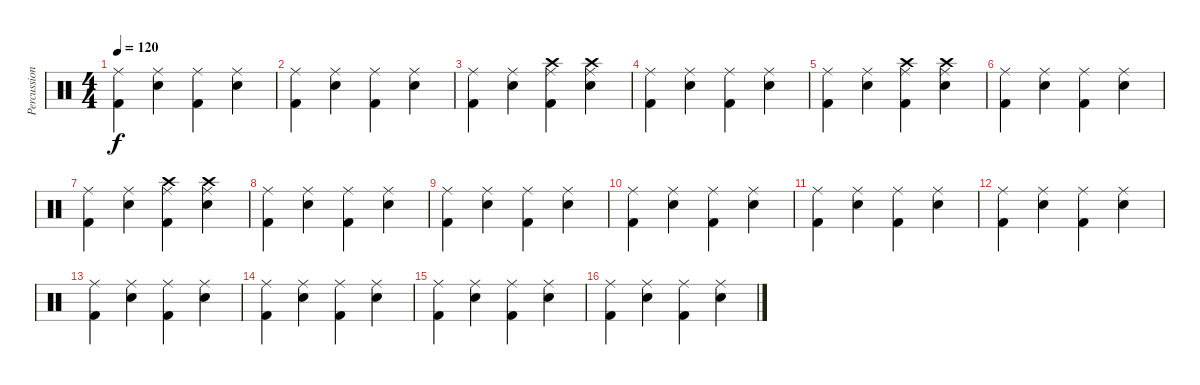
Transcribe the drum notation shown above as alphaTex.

\track ("Percussions" "Percussion") {instrument percussion}
\staff {score}
\articulation defaults
\ts (4 4)
\tempo 120
\clef neutral
\ks c
("Ride (middle)" "Kick (hit) 2").4{dy f} ("Ride (middle)" "Electric Snare (hit)").4 ("Ride (middle)" "Kick (hit) 2").4 ("Ride (middle)" "Electric Snare (hit)").4 |
("Ride (middle)" "Kick (hit) 2").4 ("Ride (middle)" "Electric Snare (hit)").4 ("Ride (middle)" "Kick (hit) 2").4 ("Ride (middle)" "Electric Snare (hit)").4 |
("Ride (middle)" "Kick (hit) 2").4 ("Ride (middle)" "Electric Snare (hit)").4 ("Ride (middle)" "Kick (hit) 2" "Crash high (hit)").4 ("Ride (middle)" "Electric Snare (hit)" "Crash high (hit)").4 |
("Ride (middle)" "Kick (hit) 2").4 ("Ride (middle)" "Electric Snare (hit)").4 ("Ride (middle)" "Kick (hit) 2").4 ("Ride (middle)" "Electric Snare (hit)").4 |
("Ride (middle)" "Kick (hit) 2").4 ("Ride (middle)" "Electric Snare (hit)").4 ("Ride (middle)" "Kick (hit) 2" "Crash high (hit)").4 ("Ride (middle)" "Electric Snare (hit)" "Crash high (hit)").4 |
("Ride (middle)" "Kick (hit) 2").4 ("Ride (middle)" "Electric Snare (hit)").4 ("Ride (middle)" "Kick (hit) 2").4 ("Ride (middle)" "Electric Snare (hit)").4 |
("Ride (middle)" "Kick (hit) 2").4 ("Ride (middle)" "Electric Snare (hit)").4 ("Ride (middle)" "Kick (hit) 2" "Crash high (hit)").4 ("Ride (middle)" "Electric Snare (hit)" "Crash high (hit)").4 |
("Ride (middle)" "Kick (hit) 2").4 ("Ride (middle)" "Electric Snare (hit)").4 ("Ride (middle)" "Kick (hit) 2").4 ("Ride (middle)" "Electric Snare (hit)").4 |
("Ride (middle)" "Kick (hit) 2").4 ("Ride (middle)" "Electric Snare (hit)").4 ("Ride (middle)" "Kick (hit) 2").4 ("Ride (middle)" "Electric Snare (hit)").4 |
("Ride (middle)" "Kick (hit) 2").4 ("Ride (middle)" "Electric Snare (hit)").4 ("Ride (middle)" "Kick (hit) 2").4 ("Ride (middle)" "Electric Snare (hit)").4 |
("Ride (middle)" "Kick (hit) 2").4 ("Ride (middle)" "Electric Snare (hit)").4 ("Ride (middle)" "Kick (hit) 2").4 ("Ride (middle)" "Electric Snare (hit)").4 |
("Ride (middle)" "Kick (hit) 2").4 ("Ride (middle)" "Electric Snare (hit)").4 ("Ride (middle)" "Kick (hit) 2").4 ("Ride (middle)" "Electric Snare (hit)").4 |
("Ride (middle)" "Kick (hit) 2").4 ("Ride (middle)" "Electric Snare (hit)").4 ("Ride (middle)" "Kick (hit) 2").4 ("Ride (middle)" "Electric Snare (hit)").4 |
("Ride (middle)" "Kick (hit) 2").4 ("Ride (middle)" "Electric Snare (hit)").4 ("Ride (middle)" "Kick (hit) 2").4 ("Ride (middle)" "Electric Snare (hit)").4 |
("Ride (middle)" "Kick (hit) 2").4 ("Ride (middle)" "Electric Snare (hit)").4 ("Ride (middle)" "Kick (hit) 2").4 ("Ride (middle)" "Electric Snare (hit)").4 |
("Ride (middle)" "Kick (hit) 2").4 ("Ride (middle)" "Electric Snare (hit)").4 ("Ride (middle)" "Kick (hit) 2").4 ("Ride (middle)" "Electric Snare (hit)").4
